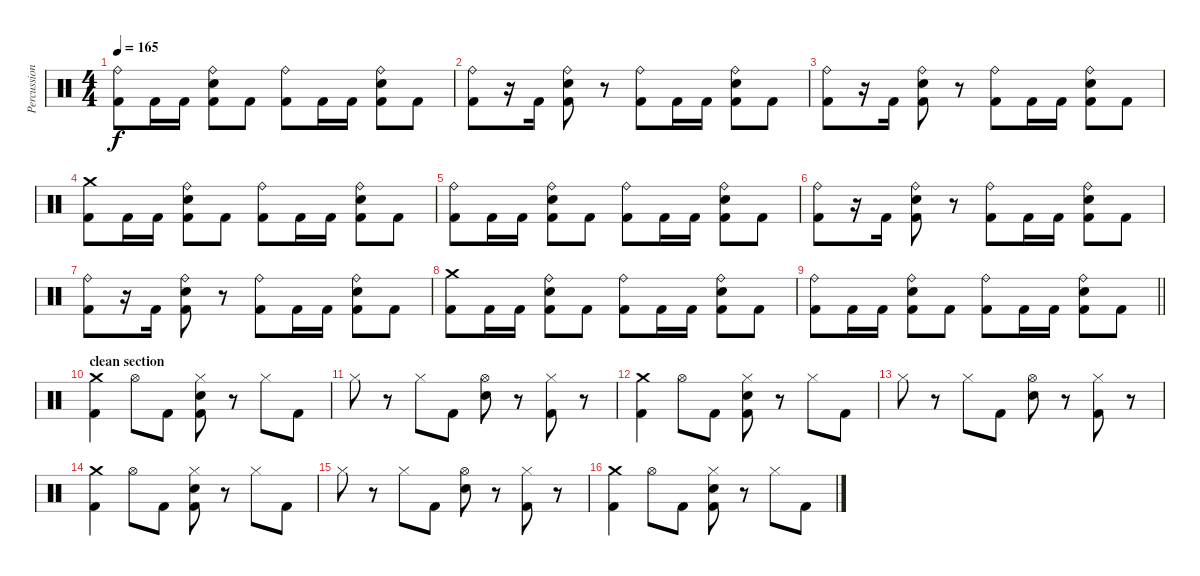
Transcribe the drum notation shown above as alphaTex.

\track ("Percussion" "Percussion") {instrument percussion}
\staff {score}
\articulation defaults
\ts (4 4)
\tempo 165
\clef neutral
\ks c
("Ride (bell)" "Kick (hit) 2").8{dy f} "Kick (hit) 2".16 "Kick (hit) 2".16 ("Ride (bell)" "Electric Snare (hit)" "Kick (hit) 2").8 "Kick (hit) 2".8 ("Ride (bell)" "Kick (hit) 2").8 "Kick (hit) 2".16 "Kick (hit) 2".16 ("Ride (bell)" "Electric Snare (hit)" "Kick (hit) 2").8 "Kick (hit) 2".8 |
("Ride (bell)" "Kick (hit) 2").8 r.16 "Kick (hit) 2".16 ("Ride (bell)" "Electric Snare (hit)" "Kick (hit) 2").8 r.8 ("Ride (bell)" "Kick (hit) 2").8 "Kick (hit) 2".16 "Kick (hit) 2".16 ("Ride (bell)" "Electric Snare (hit)" "Kick (hit) 2").8 "Kick (hit) 2".8 |
("Ride (bell)" "Kick (hit) 2").8 r.16 "Kick (hit) 2".16 ("Ride (bell)" "Electric Snare (hit)" "Kick (hit) 2").8 r.8 ("Ride (bell)" "Kick (hit) 2").8 "Kick (hit) 2".16 "Kick (hit) 2".16 ("Ride (bell)" "Electric Snare (hit)" "Kick (hit) 2").8 "Kick (hit) 2".8 |
("Crash medium (hit)" "Kick (hit) 2").8 "Kick (hit) 2".16 "Kick (hit) 2".16 ("Ride (bell)" "Electric Snare (hit)" "Kick (hit) 2").8 "Kick (hit) 2".8 ("Ride (bell)" "Kick (hit) 2").8 "Kick (hit) 2".16 "Kick (hit) 2".16 ("Ride (bell)" "Electric Snare (hit)" "Kick (hit) 2").8 "Kick (hit) 2".8 |
("Ride (bell)" "Kick (hit) 2").8 "Kick (hit) 2".16 "Kick (hit) 2".16 ("Ride (bell)" "Electric Snare (hit)" "Kick (hit) 2").8 "Kick (hit) 2".8 ("Ride (bell)" "Kick (hit) 2").8 "Kick (hit) 2".16 "Kick (hit) 2".16 ("Ride (bell)" "Electric Snare (hit)" "Kick (hit) 2").8 "Kick (hit) 2".8 |
("Ride (bell)" "Kick (hit) 2").8 r.16 "Kick (hit) 2".16 ("Ride (bell)" "Electric Snare (hit)" "Kick (hit) 2").8 r.8 ("Ride (bell)" "Kick (hit) 2").8 "Kick (hit) 2".16 "Kick (hit) 2".16 ("Ride (bell)" "Electric Snare (hit)" "Kick (hit) 2").8 "Kick (hit) 2".8 |
("Ride (bell)" "Kick (hit) 2").8 r.16 "Kick (hit) 2".16 ("Ride (bell)" "Electric Snare (hit)" "Kick (hit) 2").8 r.8 ("Ride (bell)" "Kick (hit) 2").8 "Kick (hit) 2".16 "Kick (hit) 2".16 ("Ride (bell)" "Electric Snare (hit)" "Kick (hit) 2").8 "Kick (hit) 2".8 |
("Crash medium (hit)" "Kick (hit) 2").8 "Kick (hit) 2".16 "Kick (hit) 2".16 ("Ride (bell)" "Electric Snare (hit)" "Kick (hit) 2").8 "Kick (hit) 2".8 ("Ride (bell)" "Kick (hit) 2").8 "Kick (hit) 2".16 "Kick (hit) 2".16 ("Ride (bell)" "Electric Snare (hit)" "Kick (hit) 2").8 "Kick (hit) 2".8 |
\barLineRight lightlight
("Ride (bell)" "Kick (hit) 2").8 "Kick (hit) 2".16 "Kick (hit) 2".16 ("Ride (bell)" "Electric Snare (hit)" "Kick (hit) 2").8 "Kick (hit) 2".8 ("Ride (bell)" "Kick (hit) 2").8 "Kick (hit) 2".16 "Kick (hit) 2".16 ("Ride (bell)" "Electric Snare (hit)" "Kick (hit) 2").8 "Kick (hit) 2".8 |
\section ("" "clean section")
("Crash medium (hit)" "Kick (hit) 2").4 "Hi-Hat (open)".8 "Kick (hit) 2".8 ("Hi-Hat (closed)" "Electric Snare (hit)" "Kick (hit) 2").8 r.8 "Hi-Hat (closed)".8 "Kick (hit) 2".8 |
"Hi-Hat (closed)".8 r.8 "Hi-Hat (closed)".8 "Kick (hit) 2".8 ("Hi-Hat (open)" "Electric Snare (hit)").8 r.8 ("Hi-Hat (closed)" "Kick (hit) 2").8 r.8 |
("Crash medium (hit)" "Kick (hit) 2").4 "Hi-Hat (open)".8 "Kick (hit) 2".8 ("Hi-Hat (closed)" "Electric Snare (hit)" "Kick (hit) 2").8 r.8 "Hi-Hat (closed)".8 "Kick (hit) 2".8 |
"Hi-Hat (closed)".8 r.8 "Hi-Hat (closed)".8 "Kick (hit) 2".8 ("Hi-Hat (open)" "Electric Snare (hit)").8 r.8 ("Hi-Hat (closed)" "Kick (hit) 2").8 r.8 |
("Crash medium (hit)" "Kick (hit) 2").4 "Hi-Hat (open)".8 "Kick (hit) 2".8 ("Hi-Hat (closed)" "Electric Snare (hit)" "Kick (hit) 2").8 r.8 "Hi-Hat (closed)".8 "Kick (hit) 2".8 |
"Hi-Hat (closed)".8 r.8 "Hi-Hat (closed)".8 "Kick (hit) 2".8 ("Hi-Hat (open)" "Electric Snare (hit)").8 r.8 ("Hi-Hat (closed)" "Kick (hit) 2").8 r.8 |
("Crash medium (hit)" "Kick (hit) 2").4 "Hi-Hat (open)".8 "Kick (hit) 2".8 ("Hi-Hat (closed)" "Electric Snare (hit)" "Kick (hit) 2").8 r.8 "Hi-Hat (closed)".8 "Kick (hit) 2".8
